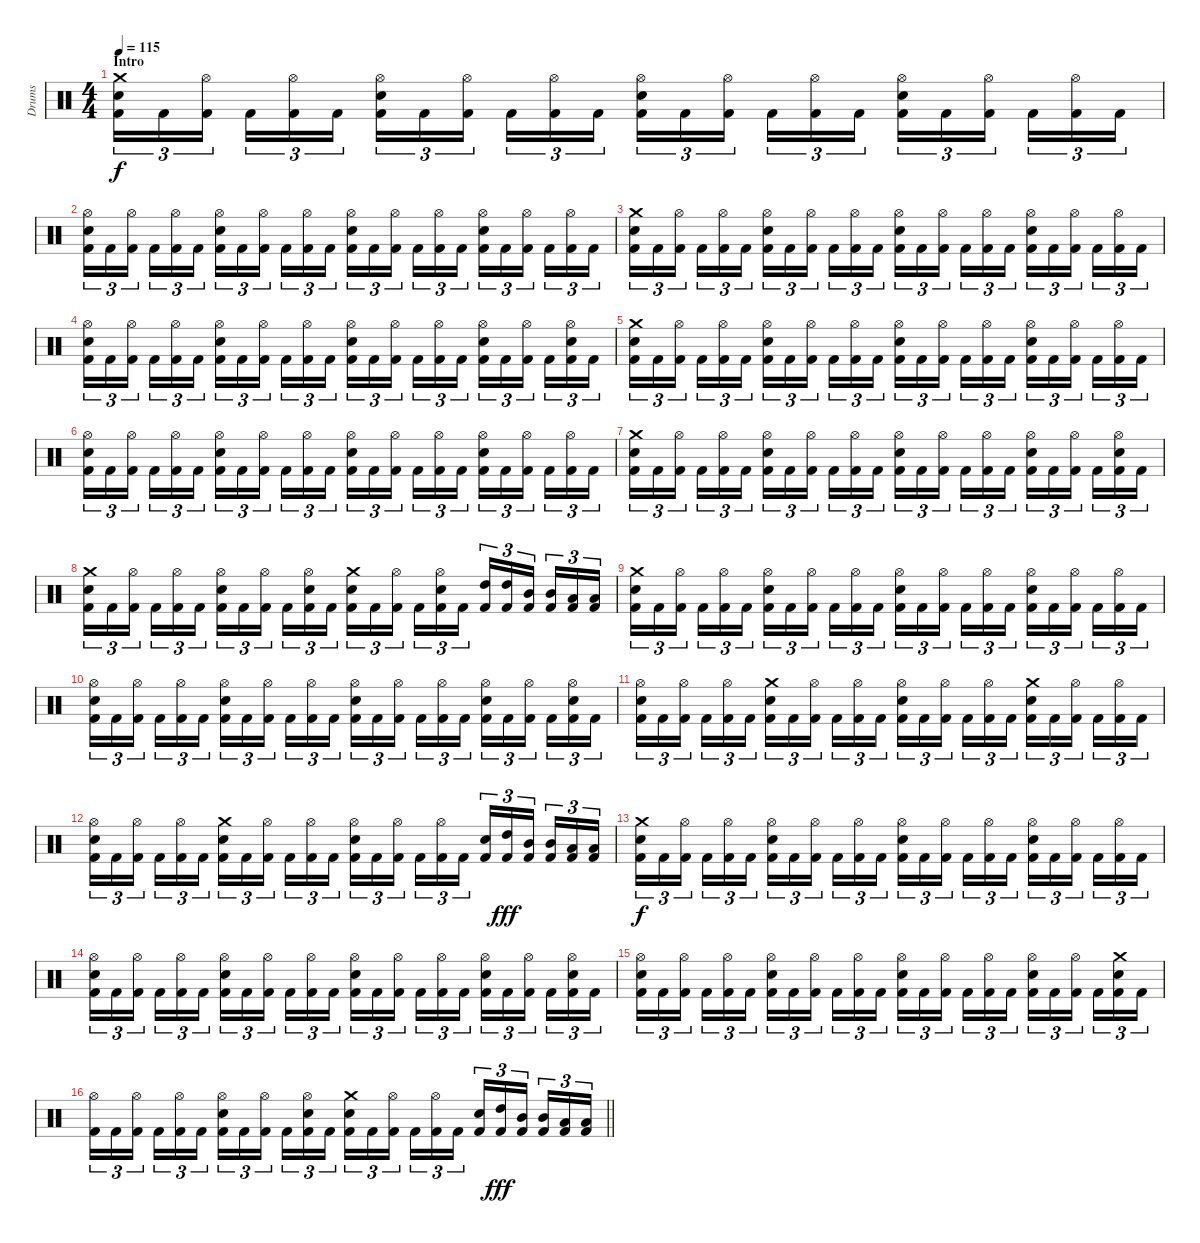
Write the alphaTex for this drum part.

\track ("Drums" "Drums") {instrument percussion}
\staff {score}
\articulation defaults
\ts (4 4)
\section ("" "Intro")
\tempo 115
\clef neutral
\ks c
("Kick (hit) 2" "Electric Snare (hit)" "Crash medium (hit)").16{tu (3 2) dy f} "Kick (hit) 2".16{tu (3 2)} ("Kick (hit) 2" "Hi-Hat (open)").16{tu (3 2)} "Kick (hit) 2".16{tu (3 2)} ("Kick (hit) 2" "Hi-Hat (open)").16{tu (3 2)} "Kick (hit) 2".16{tu (3 2)} ("Kick (hit) 2" "Electric Snare (hit)" "Hi-Hat (open)").16{tu (3 2)} "Kick (hit) 2".16{tu (3 2)} ("Kick (hit) 2" "Hi-Hat (open)").16{tu (3 2)} "Kick (hit) 2".16{tu (3 2)} ("Kick (hit) 2" "Hi-Hat (open)").16{tu (3 2)} "Kick (hit) 2".16{tu (3 2)} ("Kick (hit) 2" "Electric Snare (hit)" "Hi-Hat (open)").16{tu (3 2)} "Kick (hit) 2".16{tu (3 2)} ("Kick (hit) 2" "Hi-Hat (open)").16{tu (3 2)} "Kick (hit) 2".16{tu (3 2)} ("Kick (hit) 2" "Hi-Hat (open)").16{tu (3 2)} "Kick (hit) 2".16{tu (3 2)} ("Kick (hit) 2" "Electric Snare (hit)" "Hi-Hat (open)").16{tu (3 2)} "Kick (hit) 2".16{tu (3 2)} ("Kick (hit) 2" "Hi-Hat (open)").16{tu (3 2)} "Kick (hit) 2".16{tu (3 2)} ("Kick (hit) 2" "Hi-Hat (open)").16{tu (3 2)} "Kick (hit) 2".16{tu (3 2)} |
("Kick (hit) 2" "Electric Snare (hit)" "Hi-Hat (open)").16{tu (3 2)} "Kick (hit) 2".16{tu (3 2)} ("Kick (hit) 2" "Hi-Hat (open)").16{tu (3 2)} "Kick (hit) 2".16{tu (3 2)} ("Kick (hit) 2" "Hi-Hat (open)").16{tu (3 2)} "Kick (hit) 2".16{tu (3 2)} ("Kick (hit) 2" "Electric Snare (hit)" "Hi-Hat (open)").16{tu (3 2)} "Kick (hit) 2".16{tu (3 2)} ("Kick (hit) 2" "Hi-Hat (open)").16{tu (3 2)} "Kick (hit) 2".16{tu (3 2)} ("Kick (hit) 2" "Hi-Hat (open)").16{tu (3 2)} "Kick (hit) 2".16{tu (3 2)} ("Kick (hit) 2" "Electric Snare (hit)" "Hi-Hat (open)").16{tu (3 2)} "Kick (hit) 2".16{tu (3 2)} ("Kick (hit) 2" "Hi-Hat (open)").16{tu (3 2)} "Kick (hit) 2".16{tu (3 2)} ("Kick (hit) 2" "Hi-Hat (open)").16{tu (3 2)} "Kick (hit) 2".16{tu (3 2)} ("Kick (hit) 2" "Electric Snare (hit)" "Hi-Hat (open)").16{tu (3 2)} "Kick (hit) 2".16{tu (3 2)} ("Kick (hit) 2" "Hi-Hat (open)").16{tu (3 2)} "Kick (hit) 2".16{tu (3 2)} ("Kick (hit) 2" "Hi-Hat (open)").16{tu (3 2)} "Kick (hit) 2".16{tu (3 2)} |
("Kick (hit) 2" "Electric Snare (hit)" "Crash medium (hit)").16{tu (3 2)} "Kick (hit) 2".16{tu (3 2)} ("Kick (hit) 2" "Hi-Hat (open)").16{tu (3 2)} "Kick (hit) 2".16{tu (3 2)} ("Kick (hit) 2" "Hi-Hat (open)").16{tu (3 2)} "Kick (hit) 2".16{tu (3 2)} ("Kick (hit) 2" "Electric Snare (hit)" "Hi-Hat (open)").16{tu (3 2)} "Kick (hit) 2".16{tu (3 2)} ("Kick (hit) 2" "Hi-Hat (open)").16{tu (3 2)} "Kick (hit) 2".16{tu (3 2)} ("Kick (hit) 2" "Hi-Hat (open)").16{tu (3 2)} "Kick (hit) 2".16{tu (3 2)} ("Kick (hit) 2" "Electric Snare (hit)" "Hi-Hat (open)").16{tu (3 2)} "Kick (hit) 2".16{tu (3 2)} ("Kick (hit) 2" "Hi-Hat (open)").16{tu (3 2)} "Kick (hit) 2".16{tu (3 2)} ("Kick (hit) 2" "Hi-Hat (open)").16{tu (3 2)} "Kick (hit) 2".16{tu (3 2)} ("Kick (hit) 2" "Electric Snare (hit)" "Hi-Hat (open)").16{tu (3 2)} "Kick (hit) 2".16{tu (3 2)} ("Kick (hit) 2" "Hi-Hat (open)").16{tu (3 2)} "Kick (hit) 2".16{tu (3 2)} ("Kick (hit) 2" "Hi-Hat (open)").16{tu (3 2)} "Kick (hit) 2".16{tu (3 2)} |
("Kick (hit) 2" "Electric Snare (hit)" "Hi-Hat (open)").16{tu (3 2)} "Kick (hit) 2".16{tu (3 2)} ("Kick (hit) 2" "Hi-Hat (open)").16{tu (3 2)} "Kick (hit) 2".16{tu (3 2)} ("Kick (hit) 2" "Hi-Hat (open)").16{tu (3 2)} "Kick (hit) 2".16{tu (3 2)} ("Kick (hit) 2" "Electric Snare (hit)" "Hi-Hat (open)").16{tu (3 2)} "Kick (hit) 2".16{tu (3 2)} ("Kick (hit) 2" "Hi-Hat (open)").16{tu (3 2)} "Kick (hit) 2".16{tu (3 2)} ("Kick (hit) 2" "Hi-Hat (open)").16{tu (3 2)} "Kick (hit) 2".16{tu (3 2)} ("Kick (hit) 2" "Electric Snare (hit)" "Hi-Hat (open)").16{tu (3 2)} "Kick (hit) 2".16{tu (3 2)} ("Kick (hit) 2" "Hi-Hat (open)").16{tu (3 2)} "Kick (hit) 2".16{tu (3 2)} ("Kick (hit) 2" "Hi-Hat (open)").16{tu (3 2)} "Kick (hit) 2".16{tu (3 2)} ("Kick (hit) 2" "Electric Snare (hit)" "Hi-Hat (open)").16{tu (3 2)} "Kick (hit) 2".16{tu (3 2)} ("Kick (hit) 2" "Hi-Hat (open)").16{tu (3 2)} "Kick (hit) 2".16{tu (3 2)} ("Kick (hit) 2" "Electric Snare (hit)" "Hi-Hat (open)").16{tu (3 2)} "Kick (hit) 2".16{tu (3 2)} |
("Kick (hit) 2" "Electric Snare (hit)" "Crash medium (hit)").16{tu (3 2)} "Kick (hit) 2".16{tu (3 2)} ("Kick (hit) 2" "Hi-Hat (open)").16{tu (3 2)} "Kick (hit) 2".16{tu (3 2)} ("Kick (hit) 2" "Hi-Hat (open)").16{tu (3 2)} "Kick (hit) 2".16{tu (3 2)} ("Kick (hit) 2" "Electric Snare (hit)" "Hi-Hat (open)").16{tu (3 2)} "Kick (hit) 2".16{tu (3 2)} ("Kick (hit) 2" "Hi-Hat (open)").16{tu (3 2)} "Kick (hit) 2".16{tu (3 2)} ("Kick (hit) 2" "Hi-Hat (open)").16{tu (3 2)} "Kick (hit) 2".16{tu (3 2)} ("Kick (hit) 2" "Electric Snare (hit)" "Hi-Hat (open)").16{tu (3 2)} "Kick (hit) 2".16{tu (3 2)} ("Kick (hit) 2" "Hi-Hat (open)").16{tu (3 2)} "Kick (hit) 2".16{tu (3 2)} ("Kick (hit) 2" "Hi-Hat (open)").16{tu (3 2)} "Kick (hit) 2".16{tu (3 2)} ("Kick (hit) 2" "Electric Snare (hit)" "Hi-Hat (open)").16{tu (3 2)} "Kick (hit) 2".16{tu (3 2)} ("Kick (hit) 2" "Hi-Hat (open)").16{tu (3 2)} "Kick (hit) 2".16{tu (3 2)} ("Kick (hit) 2" "Hi-Hat (open)").16{tu (3 2)} "Kick (hit) 2".16{tu (3 2)} |
("Kick (hit) 2" "Electric Snare (hit)" "Hi-Hat (open)").16{tu (3 2)} "Kick (hit) 2".16{tu (3 2)} ("Kick (hit) 2" "Hi-Hat (open)").16{tu (3 2)} "Kick (hit) 2".16{tu (3 2)} ("Kick (hit) 2" "Hi-Hat (open)").16{tu (3 2)} "Kick (hit) 2".16{tu (3 2)} ("Kick (hit) 2" "Electric Snare (hit)" "Hi-Hat (open)").16{tu (3 2)} "Kick (hit) 2".16{tu (3 2)} ("Kick (hit) 2" "Hi-Hat (open)").16{tu (3 2)} "Kick (hit) 2".16{tu (3 2)} ("Kick (hit) 2" "Hi-Hat (open)").16{tu (3 2)} "Kick (hit) 2".16{tu (3 2)} ("Kick (hit) 2" "Electric Snare (hit)" "Hi-Hat (open)").16{tu (3 2)} "Kick (hit) 2".16{tu (3 2)} ("Kick (hit) 2" "Hi-Hat (open)").16{tu (3 2)} "Kick (hit) 2".16{tu (3 2)} ("Kick (hit) 2" "Hi-Hat (open)").16{tu (3 2)} "Kick (hit) 2".16{tu (3 2)} ("Kick (hit) 2" "Electric Snare (hit)" "Hi-Hat (open)").16{tu (3 2)} "Kick (hit) 2".16{tu (3 2)} ("Kick (hit) 2" "Hi-Hat (open)").16{tu (3 2)} "Kick (hit) 2".16{tu (3 2)} ("Kick (hit) 2" "Hi-Hat (open)").16{tu (3 2)} "Kick (hit) 2".16{tu (3 2)} |
("Kick (hit) 2" "Electric Snare (hit)" "Crash medium (hit)").16{tu (3 2)} "Kick (hit) 2".16{tu (3 2)} ("Kick (hit) 2" "Hi-Hat (open)").16{tu (3 2)} "Kick (hit) 2".16{tu (3 2)} ("Kick (hit) 2" "Hi-Hat (open)").16{tu (3 2)} "Kick (hit) 2".16{tu (3 2)} ("Kick (hit) 2" "Electric Snare (hit)" "Hi-Hat (open)").16{tu (3 2)} "Kick (hit) 2".16{tu (3 2)} ("Kick (hit) 2" "Hi-Hat (open)").16{tu (3 2)} "Kick (hit) 2".16{tu (3 2)} ("Kick (hit) 2" "Hi-Hat (open)").16{tu (3 2)} "Kick (hit) 2".16{tu (3 2)} ("Kick (hit) 2" "Electric Snare (hit)" "Hi-Hat (open)").16{tu (3 2)} "Kick (hit) 2".16{tu (3 2)} ("Kick (hit) 2" "Hi-Hat (open)").16{tu (3 2)} "Kick (hit) 2".16{tu (3 2)} ("Kick (hit) 2" "Hi-Hat (open)").16{tu (3 2)} "Kick (hit) 2".16{tu (3 2)} ("Kick (hit) 2" "Electric Snare (hit)" "Hi-Hat (open)").16{tu (3 2)} "Kick (hit) 2".16{tu (3 2)} ("Kick (hit) 2" "Hi-Hat (open)").16{tu (3 2)} "Kick (hit) 2".16{tu (3 2)} ("Kick (hit) 2" "Electric Snare (hit)" "Hi-Hat (open)").16{tu (3 2)} "Kick (hit) 2".16{tu (3 2)} |
("Kick (hit) 2" "Electric Snare (hit)" "Crash medium (hit)").16{tu (3 2)} "Kick (hit) 2".16{tu (3 2)} ("Kick (hit) 2" "Hi-Hat (open)").16{tu (3 2)} "Kick (hit) 2".16{tu (3 2)} ("Kick (hit) 2" "Hi-Hat (open)").16{tu (3 2)} "Kick (hit) 2".16{tu (3 2)} ("Kick (hit) 2" "Electric Snare (hit)" "Hi-Hat (open)").16{tu (3 2)} "Kick (hit) 2".16{tu (3 2)} ("Kick (hit) 2" "Hi-Hat (open)").16{tu (3 2)} "Kick (hit) 2".16{tu (3 2)} ("Kick (hit) 2" "Electric Snare (hit)" "Hi-Hat (open)").16{tu (3 2)} "Kick (hit) 2".16{tu (3 2)} ("Kick (hit) 2" "Electric Snare (hit)" "Crash medium (hit)").16{tu (3 2)} "Kick (hit) 2".16{tu (3 2)} ("Kick (hit) 2" "Hi-Hat (open)").16{tu (3 2)} "Kick (hit) 2".16{tu (3 2)} ("Kick (hit) 2" "Electric Snare (hit)" "Hi-Hat (open)").16{tu (3 2)} "Kick (hit) 2".16{tu (3 2)} ("Kick (hit) 2" "High Tom (hit)").16{tu (3 2)} ("Kick (hit) 2" "High Tom (hit)").16{tu (3 2)} ("Kick (hit) 2" "Mid Tom (hit)").16{tu (3 2)} ("Kick (hit) 2" "Mid Tom (hit)").16{tu (3 2)} ("Kick (hit) 2" "Low Tom (hit)").16{tu (3 2)} ("Kick (hit) 2" "Low Tom (hit)").16{tu (3 2)} |
("Kick (hit) 2" "Electric Snare (hit)" "Crash medium (hit)").16{tu (3 2)} "Kick (hit) 2".16{tu (3 2)} ("Kick (hit) 2" "Hi-Hat (open)").16{tu (3 2)} "Kick (hit) 2".16{tu (3 2)} ("Kick (hit) 2" "Hi-Hat (open)").16{tu (3 2)} "Kick (hit) 2".16{tu (3 2)} ("Kick (hit) 2" "Electric Snare (hit)" "Hi-Hat (open)").16{tu (3 2)} "Kick (hit) 2".16{tu (3 2)} ("Kick (hit) 2" "Hi-Hat (open)").16{tu (3 2)} "Kick (hit) 2".16{tu (3 2)} ("Kick (hit) 2" "Hi-Hat (open)").16{tu (3 2)} "Kick (hit) 2".16{tu (3 2)} ("Kick (hit) 2" "Electric Snare (hit)" "Hi-Hat (open)").16{tu (3 2)} "Kick (hit) 2".16{tu (3 2)} ("Kick (hit) 2" "Hi-Hat (open)").16{tu (3 2)} "Kick (hit) 2".16{tu (3 2)} ("Kick (hit) 2" "Hi-Hat (open)").16{tu (3 2)} "Kick (hit) 2".16{tu (3 2)} ("Kick (hit) 2" "Electric Snare (hit)" "Hi-Hat (open)").16{tu (3 2)} "Kick (hit) 2".16{tu (3 2)} ("Kick (hit) 2" "Hi-Hat (open)").16{tu (3 2)} "Kick (hit) 2".16{tu (3 2)} ("Kick (hit) 2" "Hi-Hat (open)").16{tu (3 2)} "Kick (hit) 2".16{tu (3 2)} |
("Kick (hit) 2" "Electric Snare (hit)" "Hi-Hat (open)").16{tu (3 2)} "Kick (hit) 2".16{tu (3 2)} ("Kick (hit) 2" "Hi-Hat (open)").16{tu (3 2)} "Kick (hit) 2".16{tu (3 2)} ("Kick (hit) 2" "Hi-Hat (open)").16{tu (3 2)} "Kick (hit) 2".16{tu (3 2)} ("Kick (hit) 2" "Electric Snare (hit)" "Hi-Hat (open)").16{tu (3 2)} "Kick (hit) 2".16{tu (3 2)} ("Kick (hit) 2" "Hi-Hat (open)").16{tu (3 2)} "Kick (hit) 2".16{tu (3 2)} ("Kick (hit) 2" "Hi-Hat (open)").16{tu (3 2)} "Kick (hit) 2".16{tu (3 2)} ("Kick (hit) 2" "Electric Snare (hit)" "Hi-Hat (open)").16{tu (3 2)} "Kick (hit) 2".16{tu (3 2)} ("Kick (hit) 2" "Hi-Hat (open)").16{tu (3 2)} "Kick (hit) 2".16{tu (3 2)} ("Kick (hit) 2" "Hi-Hat (open)").16{tu (3 2)} "Kick (hit) 2".16{tu (3 2)} ("Kick (hit) 2" "Electric Snare (hit)" "Hi-Hat (open)").16{tu (3 2)} "Kick (hit) 2".16{tu (3 2)} ("Kick (hit) 2" "Hi-Hat (open)").16{tu (3 2)} "Kick (hit) 2".16{tu (3 2)} ("Kick (hit) 2" "Electric Snare (hit)" "Hi-Hat (open)").16{tu (3 2)} "Kick (hit) 2".16{tu (3 2)} |
("Kick (hit) 2" "Electric Snare (hit)" "Hi-Hat (open)").16{tu (3 2)} "Kick (hit) 2".16{tu (3 2)} ("Kick (hit) 2" "Hi-Hat (open)").16{tu (3 2)} "Kick (hit) 2".16{tu (3 2)} ("Kick (hit) 2" "Hi-Hat (open)").16{tu (3 2)} "Kick (hit) 2".16{tu (3 2)} ("Kick (hit) 2" "Electric Snare (hit)" "Crash medium (hit)").16{tu (3 2)} "Kick (hit) 2".16{tu (3 2)} ("Kick (hit) 2" "Hi-Hat (open)").16{tu (3 2)} "Kick (hit) 2".16{tu (3 2)} ("Kick (hit) 2" "Hi-Hat (open)").16{tu (3 2)} "Kick (hit) 2".16{tu (3 2)} ("Kick (hit) 2" "Electric Snare (hit)" "Hi-Hat (open)").16{tu (3 2)} "Kick (hit) 2".16{tu (3 2)} ("Kick (hit) 2" "Hi-Hat (open)").16{tu (3 2)} "Kick (hit) 2".16{tu (3 2)} ("Kick (hit) 2" "Hi-Hat (open)").16{tu (3 2)} "Kick (hit) 2".16{tu (3 2)} ("Kick (hit) 2" "Electric Snare (hit)" "Crash medium (hit)").16{tu (3 2)} "Kick (hit) 2".16{tu (3 2)} ("Kick (hit) 2" "Hi-Hat (open)").16{tu (3 2)} "Kick (hit) 2".16{tu (3 2)} ("Kick (hit) 2" "Hi-Hat (open)").16{tu (3 2)} "Kick (hit) 2".16{tu (3 2)} |
("Kick (hit) 2" "Electric Snare (hit)" "Hi-Hat (open)").16{tu (3 2)} "Kick (hit) 2".16{tu (3 2)} ("Kick (hit) 2" "Hi-Hat (open)").16{tu (3 2)} "Kick (hit) 2".16{tu (3 2)} ("Kick (hit) 2" "Hi-Hat (open)").16{tu (3 2)} "Kick (hit) 2".16{tu (3 2)} ("Kick (hit) 2" "Electric Snare (hit)" "Crash medium (hit)").16{tu (3 2)} "Kick (hit) 2".16{tu (3 2)} ("Kick (hit) 2" "Hi-Hat (open)").16{tu (3 2)} "Kick (hit) 2".16{tu (3 2)} ("Kick (hit) 2" "Hi-Hat (open)").16{tu (3 2)} "Kick (hit) 2".16{tu (3 2)} ("Kick (hit) 2" "Electric Snare (hit)" "Hi-Hat (open)").16{tu (3 2)} "Kick (hit) 2".16{tu (3 2)} ("Kick (hit) 2" "Hi-Hat (open)").16{tu (3 2)} "Kick (hit) 2".16{tu (3 2)} ("Kick (hit) 2" "Hi-Hat (open)").16{tu (3 2)} "Kick (hit) 2".16{tu (3 2)} ("Kick (hit) 2" "Electric Snare (hit)").16{tu (3 2)} ("Kick (hit) 2" "High Tom (hit)").16{tu (3 2) dy fff} ("Kick (hit) 2" "Mid Tom (hit)").16{tu (3 2)} ("Kick (hit) 2" "Mid Tom (hit)").16{tu (3 2)} ("Kick (hit) 2" "Low Tom (hit)").16{tu (3 2)} ("Kick (hit) 2" "Low Tom (hit)").16{tu (3 2)} |
("Kick (hit) 2" "Electric Snare (hit)" "Crash medium (hit)").16{tu (3 2) dy f} "Kick (hit) 2".16{tu (3 2)} ("Kick (hit) 2" "Hi-Hat (open)").16{tu (3 2)} "Kick (hit) 2".16{tu (3 2)} ("Kick (hit) 2" "Hi-Hat (open)").16{tu (3 2)} "Kick (hit) 2".16{tu (3 2)} ("Kick (hit) 2" "Electric Snare (hit)" "Hi-Hat (open)").16{tu (3 2)} "Kick (hit) 2".16{tu (3 2)} ("Kick (hit) 2" "Hi-Hat (open)").16{tu (3 2)} "Kick (hit) 2".16{tu (3 2)} ("Kick (hit) 2" "Hi-Hat (open)").16{tu (3 2)} "Kick (hit) 2".16{tu (3 2)} ("Kick (hit) 2" "Electric Snare (hit)" "Hi-Hat (open)").16{tu (3 2)} "Kick (hit) 2".16{tu (3 2)} ("Kick (hit) 2" "Hi-Hat (open)").16{tu (3 2)} "Kick (hit) 2".16{tu (3 2)} ("Kick (hit) 2" "Hi-Hat (open)").16{tu (3 2)} "Kick (hit) 2".16{tu (3 2)} ("Kick (hit) 2" "Electric Snare (hit)" "Hi-Hat (open)").16{tu (3 2)} "Kick (hit) 2".16{tu (3 2)} ("Kick (hit) 2" "Hi-Hat (open)").16{tu (3 2)} "Kick (hit) 2".16{tu (3 2)} ("Kick (hit) 2" "Hi-Hat (open)").16{tu (3 2)} "Kick (hit) 2".16{tu (3 2)} |
("Kick (hit) 2" "Electric Snare (hit)" "Hi-Hat (open)").16{tu (3 2)} "Kick (hit) 2".16{tu (3 2)} ("Kick (hit) 2" "Hi-Hat (open)").16{tu (3 2)} "Kick (hit) 2".16{tu (3 2)} ("Kick (hit) 2" "Hi-Hat (open)").16{tu (3 2)} "Kick (hit) 2".16{tu (3 2)} ("Kick (hit) 2" "Electric Snare (hit)" "Hi-Hat (open)").16{tu (3 2)} "Kick (hit) 2".16{tu (3 2)} ("Kick (hit) 2" "Hi-Hat (open)").16{tu (3 2)} "Kick (hit) 2".16{tu (3 2)} ("Kick (hit) 2" "Hi-Hat (open)").16{tu (3 2)} "Kick (hit) 2".16{tu (3 2)} ("Kick (hit) 2" "Electric Snare (hit)" "Hi-Hat (open)").16{tu (3 2)} "Kick (hit) 2".16{tu (3 2)} ("Kick (hit) 2" "Hi-Hat (open)").16{tu (3 2)} "Kick (hit) 2".16{tu (3 2)} ("Kick (hit) 2" "Hi-Hat (open)").16{tu (3 2)} "Kick (hit) 2".16{tu (3 2)} ("Kick (hit) 2" "Electric Snare (hit)" "Hi-Hat (open)").16{tu (3 2)} "Kick (hit) 2".16{tu (3 2)} ("Kick (hit) 2" "Hi-Hat (open)").16{tu (3 2)} "Kick (hit) 2".16{tu (3 2)} ("Kick (hit) 2" "Electric Snare (hit)" "Hi-Hat (open)").16{tu (3 2)} "Kick (hit) 2".16{tu (3 2)} |
("Kick (hit) 2" "Electric Snare (hit)" "Hi-Hat (open)").16{tu (3 2)} "Kick (hit) 2".16{tu (3 2)} ("Kick (hit) 2" "Hi-Hat (open)").16{tu (3 2)} "Kick (hit) 2".16{tu (3 2)} ("Kick (hit) 2" "Hi-Hat (open)").16{tu (3 2)} "Kick (hit) 2".16{tu (3 2)} ("Kick (hit) 2" "Electric Snare (hit)" "Hi-Hat (open)").16{tu (3 2)} "Kick (hit) 2".16{tu (3 2)} ("Kick (hit) 2" "Hi-Hat (open)").16{tu (3 2)} "Kick (hit) 2".16{tu (3 2)} ("Kick (hit) 2" "Hi-Hat (open)").16{tu (3 2)} "Kick (hit) 2".16{tu (3 2)} ("Kick (hit) 2" "Electric Snare (hit)" "Hi-Hat (open)").16{tu (3 2)} "Kick (hit) 2".16{tu (3 2)} ("Kick (hit) 2" "Hi-Hat (open)").16{tu (3 2)} "Kick (hit) 2".16{tu (3 2)} ("Kick (hit) 2" "Hi-Hat (open)").16{tu (3 2)} "Kick (hit) 2".16{tu (3 2)} ("Kick (hit) 2" "Electric Snare (hit)" "Hi-Hat (open)").16{tu (3 2)} "Kick (hit) 2".16{tu (3 2)} ("Kick (hit) 2" "Hi-Hat (open)").16{tu (3 2)} "Kick (hit) 2".16{tu (3 2)} ("Kick (hit) 2" "Electric Snare (hit)" "Crash medium (hit)").16{tu (3 2)} "Kick (hit) 2".16{tu (3 2)} |
\barLineRight lightlight
("Kick (hit) 2" "Hi-Hat (open)").16{tu (3 2)} "Kick (hit) 2".16{tu (3 2)} ("Kick (hit) 2" "Hi-Hat (open)").16{tu (3 2)} "Kick (hit) 2".16{tu (3 2)} ("Kick (hit) 2" "Hi-Hat (open)").16{tu (3 2)} "Kick (hit) 2".16{tu (3 2)} ("Kick (hit) 2" "Electric Snare (hit)" "Hi-Hat (open)").16{tu (3 2)} "Kick (hit) 2".16{tu (3 2)} ("Kick (hit) 2" "Hi-Hat (open)").16{tu (3 2)} "Kick (hit) 2".16{tu (3 2)} ("Kick (hit) 2" "Electric Snare (hit)" "Hi-Hat (open)").16{tu (3 2)} "Kick (hit) 2".16{tu (3 2)} ("Kick (hit) 2" "Electric Snare (hit)" "Crash medium (hit)").16{tu (3 2)} "Kick (hit) 2".16{tu (3 2)} ("Kick (hit) 2" "Hi-Hat (open)").16{tu (3 2)} "Kick (hit) 2".16{tu (3 2)} ("Kick (hit) 2" "Hi-Hat (open)").16{tu (3 2)} "Kick (hit) 2".16{tu (3 2)} ("Kick (hit) 2" "Electric Snare (hit)").16{tu (3 2)} ("Kick (hit) 2" "High Tom (hit)").16{tu (3 2) dy fff} ("Kick (hit) 2" "Mid Tom (hit)").16{tu (3 2)} ("Kick (hit) 2" "Mid Tom (hit)").16{tu (3 2)} ("Kick (hit) 2" "Low Tom (hit)").16{tu (3 2)} ("Kick (hit) 2" "Low Tom (hit)").16{tu (3 2)}
